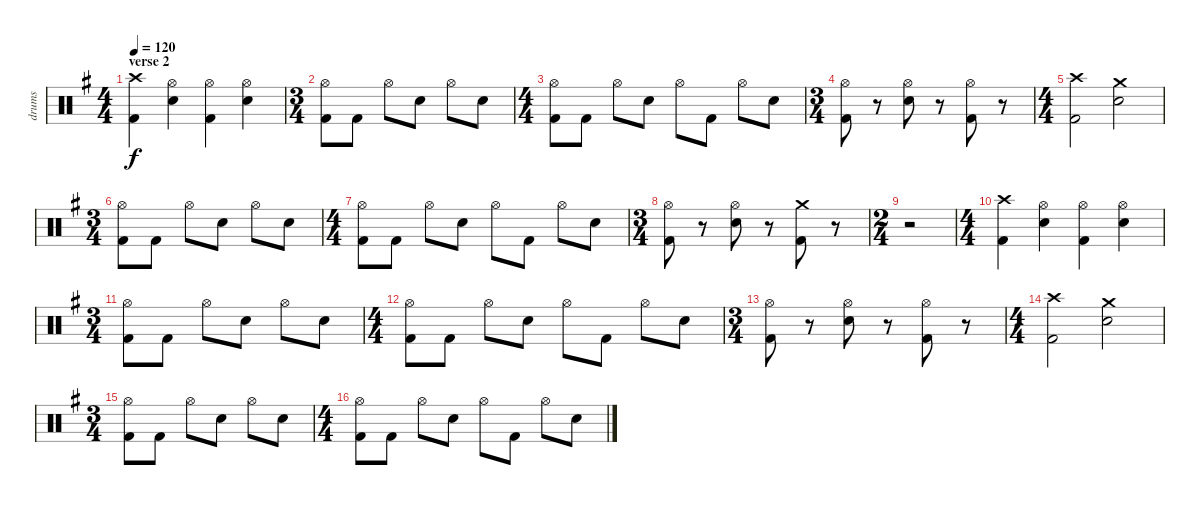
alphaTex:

\track ("drums" "drums") {instrument percussion}
\staff {score}
\articulation defaults
\ts (4 4)
\section ("" "verse 2")
\tempo 120
\clef neutral
\ks g
("Crash high (hit)" "Kick (hit) 2").4{dy f} ("Hi-Hat (open)" "Snare (hit) 2").4 ("Hi-Hat (open)" "Kick (hit) 2").4 ("Hi-Hat (open)" "Snare (hit) 2").4 |
\ts (3 4)
("Hi-Hat (open)" "Kick (hit) 2").8 "Kick (hit) 2".8 "Hi-Hat (open)".8 "Snare (hit) 2".8 "Hi-Hat (open)".8 "Snare (hit) 2".8 |
\ts (4 4)
("Hi-Hat (open)" "Kick (hit) 2").8 "Kick (hit) 2".8 "Hi-Hat (open)".8 "Snare (hit) 2".8 "Hi-Hat (open)".8 "Kick (hit) 2".8 "Hi-Hat (open)".8 "Snare (hit) 2".8 |
\ts (3 4)
("Hi-Hat (open)" "Kick (hit) 2").8 r.8 ("Hi-Hat (open)" "Snare (hit) 2").8 r.8 ("Hi-Hat (open)" "Kick (hit) 2").8 r.8 |
\ts (4 4)
("Crash high (hit)" "Kick (hit) 2").2 ("Crash medium (hit)" "Snare (hit) 2").2 |
\ts (3 4)
("Hi-Hat (open)" "Kick (hit) 2").8 "Kick (hit) 2".8 "Hi-Hat (open)".8 "Snare (hit) 2".8 "Hi-Hat (open)".8 "Snare (hit) 2".8 |
\ts (4 4)
("Hi-Hat (open)" "Kick (hit) 2").8 "Kick (hit) 2".8 "Hi-Hat (open)".8 "Snare (hit) 2".8 "Hi-Hat (open)".8 "Kick (hit) 2".8 "Hi-Hat (open)".8 "Snare (hit) 2".8 |
\ts (3 4)
("Hi-Hat (open)" "Kick (hit) 2").8 r.8 ("Hi-Hat (open)" "Snare (hit) 2").8 r.8 ("Crash medium (hit)" "Kick (hit) 2").8 r.8 |
\ts (2 4)
r.2 |
\ts (4 4)
("Crash high (hit)" "Kick (hit) 2").4 ("Hi-Hat (open)" "Snare (hit) 2").4 ("Hi-Hat (open)" "Kick (hit) 2").4 ("Hi-Hat (open)" "Snare (hit) 2").4 |
\ts (3 4)
("Hi-Hat (open)" "Kick (hit) 2").8 "Kick (hit) 2".8 "Hi-Hat (open)".8 "Snare (hit) 2".8 "Hi-Hat (open)".8 "Snare (hit) 2".8 |
\ts (4 4)
("Hi-Hat (open)" "Kick (hit) 2").8 "Kick (hit) 2".8 "Hi-Hat (open)".8 "Snare (hit) 2".8 "Hi-Hat (open)".8 "Kick (hit) 2".8 "Hi-Hat (open)".8 "Snare (hit) 2".8 |
\ts (3 4)
("Hi-Hat (open)" "Kick (hit) 2").8 r.8 ("Hi-Hat (open)" "Snare (hit) 2").8 r.8 ("Hi-Hat (open)" "Kick (hit) 2").8 r.8 |
\ts (4 4)
("Crash high (hit)" "Kick (hit) 2").2 ("Crash medium (hit)" "Snare (hit) 2").2 |
\ts (3 4)
("Hi-Hat (open)" "Kick (hit) 2").8 "Kick (hit) 2".8 "Hi-Hat (open)".8 "Snare (hit) 2".8 "Hi-Hat (open)".8 "Snare (hit) 2".8 |
\ts (4 4)
("Hi-Hat (open)" "Kick (hit) 2").8 "Kick (hit) 2".8 "Hi-Hat (open)".8 "Snare (hit) 2".8 "Hi-Hat (open)".8 "Kick (hit) 2".8 "Hi-Hat (open)".8 "Snare (hit) 2".8
